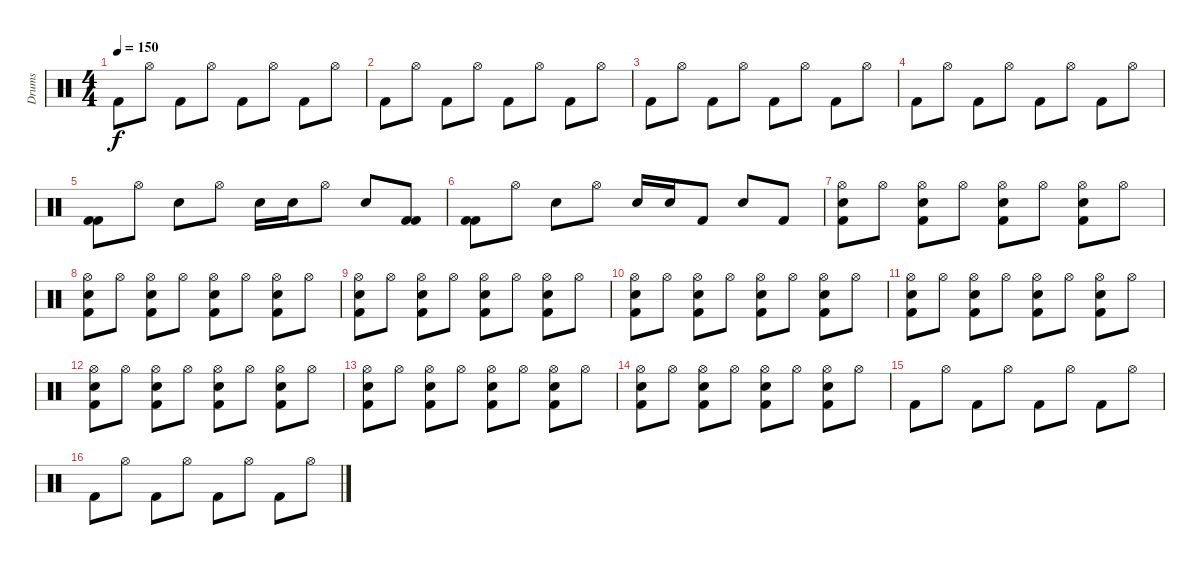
\track ("Drums" "Drums") {instrument percussion}
\staff {score}
\articulation defaults
\ts (4 4)
\tempo 150
\clef neutral
\ks c "Kick (hit) 2".8{dy f} "Hi-Hat (open)".8 "Kick (hit) 2".8 "Hi-Hat (open)".8 "Kick (hit) 2".8 "Hi-Hat (open)".8 "Kick (hit) 2".8 "Hi-Hat (open)".8
|
"Kick (hit) 2".8 "Hi-Hat (open)".8 "Kick (hit) 2".8 "Hi-Hat (open)".8 "Kick (hit) 2".8 "Hi-Hat (open)".8 "Kick (hit) 2".8 "Hi-Hat (open)".8 |
"Kick (hit) 2".8 "Hi-Hat (open)".8 "Kick (hit) 2".8 "Hi-Hat (open)".8 "Kick (hit) 2".8 "Hi-Hat (open)".8 "Kick (hit) 2".8 "Hi-Hat (open)".8 |
"Kick (hit) 2".8 "Hi-Hat (open)".8 "Kick (hit) 2".8 "Hi-Hat (open)".8 "Kick (hit) 2".8 "Hi-Hat (open)".8 "Kick (hit) 2".8 "Hi-Hat (open)".8 |
("Kick (hit) 2" "Kick (hit) 2").8 "Hi-Hat (open)".8 "Snare (hit) 2".8 "Hi-Hat (open)".8 "Snare (hit) 2".16 "Snare (hit) 2".16 "Hi-Hat (open)".8 "Snare (hit) 2".8 ("Kick (hit) 2" "Kick (hit) 2").8 |
("Kick (hit) 2" "Kick (hit) 2").8 "Hi-Hat (open)".8 "Snare (hit) 2".8 "Hi-Hat (open)".8 "Snare (hit) 2".16 "Snare (hit) 2".16 "Kick (hit) 2".8 "Snare (hit) 2".8 "Kick (hit) 2".8 |
("Hi-Hat (open)" "Snare (hit) 2" "Kick (hit) 2").8 "Hi-Hat (open)".8 ("Hi-Hat (open)" "Snare (hit) 2" "Kick (hit) 2").8 "Hi-Hat (open)".8 ("Hi-Hat (open)" "Snare (hit) 2" "Kick (hit) 2").8 "Hi-Hat (open)".8 ("Hi-Hat (open)" "Snare (hit) 2" "Kick (hit) 2").8 "Hi-Hat (open)".8 |
("Hi-Hat (open)" "Snare (hit) 2" "Kick (hit) 2").8 "Hi-Hat (open)".8 ("Hi-Hat (open)" "Snare (hit) 2" "Kick (hit) 2").8 "Hi-Hat (open)".8 ("Hi-Hat (open)" "Snare (hit) 2" "Kick (hit) 2").8 "Hi-Hat (open)".8 ("Hi-Hat (open)" "Snare (hit) 2" "Kick (hit) 2").8 "Hi-Hat (open)".8 |
("Hi-Hat (open)" "Snare (hit) 2" "Kick (hit) 2").8 "Hi-Hat (open)".8 ("Hi-Hat (open)" "Snare (hit) 2" "Kick (hit) 2").8 "Hi-Hat (open)".8 ("Hi-Hat (open)" "Snare (hit) 2" "Kick (hit) 2").8 "Hi-Hat (open)".8 ("Hi-Hat (open)" "Snare (hit) 2" "Kick (hit) 2").8 "Hi-Hat (open)".8 |
("Hi-Hat (open)" "Snare (hit) 2" "Kick (hit) 2").8 "Hi-Hat (open)".8 ("Hi-Hat (open)" "Snare (hit) 2" "Kick (hit) 2").8 "Hi-Hat (open)".8 ("Hi-Hat (open)" "Snare (hit) 2" "Kick (hit) 2").8 "Hi-Hat (open)".8 ("Hi-Hat (open)" "Snare (hit) 2" "Kick (hit) 2").8 "Hi-Hat (open)".8 |
("Hi-Hat (open)" "Snare (hit) 2" "Kick (hit) 2").8 "Hi-Hat (open)".8 ("Hi-Hat (open)" "Snare (hit) 2" "Kick (hit) 2").8 "Hi-Hat (open)".8 ("Hi-Hat (open)" "Snare (hit) 2" "Kick (hit) 2").8 "Hi-Hat (open)".8 ("Hi-Hat (open)" "Snare (hit) 2" "Kick (hit) 2").8 "Hi-Hat (open)".8 |
("Hi-Hat (open)" "Snare (hit) 2" "Kick (hit) 2").8 "Hi-Hat (open)".8 ("Hi-Hat (open)" "Snare (hit) 2" "Kick (hit) 2").8 "Hi-Hat (open)".8 ("Hi-Hat (open)" "Snare (hit) 2" "Kick (hit) 2").8 "Hi-Hat (open)".8 ("Hi-Hat (open)" "Snare (hit) 2" "Kick (hit) 2").8 "Hi-Hat (open)".8 |
("Hi-Hat (open)" "Snare (hit) 2" "Kick (hit) 2").8 "Hi-Hat (open)".8 ("Hi-Hat (open)" "Snare (hit) 2" "Kick (hit) 2").8 "Hi-Hat (open)".8 ("Hi-Hat (open)" "Snare (hit) 2" "Kick (hit) 2").8 "Hi-Hat (open)".8 ("Hi-Hat (open)" "Snare (hit) 2" "Kick (hit) 2").8 "Hi-Hat (open)".8 |
("Hi-Hat (open)" "Snare (hit) 2" "Kick (hit) 2").8 "Hi-Hat (open)".8 ("Hi-Hat (open)" "Snare (hit) 2" "Kick (hit) 2").8 "Hi-Hat (open)".8 ("Hi-Hat (open)" "Snare (hit) 2" "Kick (hit) 2").8 "Hi-Hat (open)".8 ("Hi-Hat (open)" "Snare (hit) 2" "Kick (hit) 2").8 "Hi-Hat (open)".8 |
"Kick (hit) 2".8 "Hi-Hat (open)".8 "Kick (hit) 2".8 "Hi-Hat (open)".8 "Kick (hit) 2".8 "Hi-Hat (open)".8 "Kick (hit) 2".8 "Hi-Hat (open)".8 |
"Kick (hit) 2".8 "Hi-Hat (open)".8 "Kick (hit) 2".8 "Hi-Hat (open)".8 "Kick (hit) 2".8 "Hi-Hat (open)".8 "Kick (hit) 2".8 "Hi-Hat (open)".8
